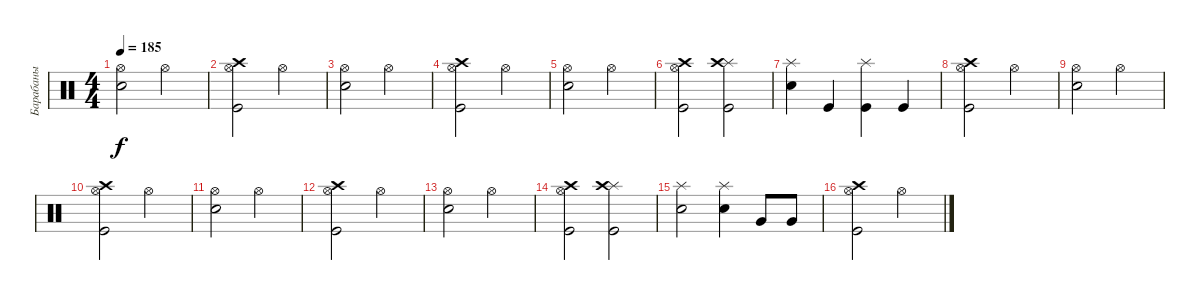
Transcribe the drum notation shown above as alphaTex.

\track ("Барабаны" "Барабаны") {instrument percussion}
\staff {score}
\articulation defaults
\ts (4 4)
\tempo 185
\clef neutral
\ks c
("Hi-Hat (open)" "Electric Snare (hit)").2{dy f} "Hi-Hat (open)".2 |
("Hi-Hat (open)" "Crash high (hit)" "Kick (hit)").2 "Hi-Hat (open)".2 |
("Hi-Hat (open)" "Electric Snare (hit)").2 "Hi-Hat (open)".2 |
("Hi-Hat (open)" "Crash high (hit)" "Kick (hit)").2 "Hi-Hat (open)".2 |
("Hi-Hat (open)" "Electric Snare (hit)").2 "Hi-Hat (open)".2 |
("Hi-Hat (open)" "Crash high (hit)" "Kick (hit)").2 ("Splash (hit)" "Crash high (hit)" "Kick (hit)").2 |
("Splash (hit)" "Electric Snare (hit)").4 "Kick (hit)".4 ("Splash (hit)" "Kick (hit)").4 "Kick (hit)".4 |
("Hi-Hat (open)" "Crash high (hit)" "Kick (hit)").2 "Hi-Hat (open)".2 |
("Hi-Hat (open)" "Electric Snare (hit)").2 "Hi-Hat (open)".2 |
("Hi-Hat (open)" "Crash high (hit)" "Kick (hit)").2 "Hi-Hat (open)".2 |
("Hi-Hat (open)" "Electric Snare (hit)").2 "Hi-Hat (open)".2 |
("Hi-Hat (open)" "Crash high (hit)" "Kick (hit)").2 "Hi-Hat (open)".2 |
("Hi-Hat (open)" "Electric Snare (hit)").2 "Hi-Hat (open)".2 |
("Hi-Hat (open)" "Crash high (hit)" "Kick (hit)").2 ("Splash (hit)" "Crash high (hit)" "Kick (hit)").2 |
("Splash (hit)" "Electric Snare (hit)").2 ("Splash (hit)" "Electric Snare (hit)").4 "Very Low Tom (hit)".8 "Very Low Tom (hit)".8 |
("Hi-Hat (open)" "Crash high (hit)" "Kick (hit)").2 "Hi-Hat (open)".2
